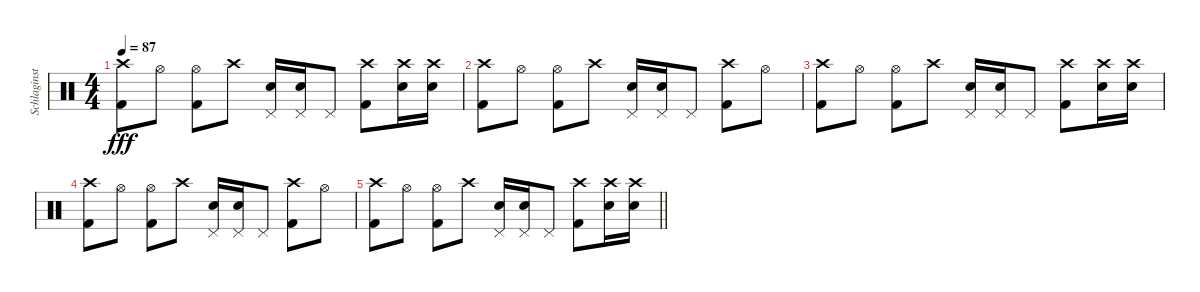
\track ("Schlaginstrumente -  Auswahl" "Schlaginst") {instrument percussion}
\staff {score}
\articulation defaults
\ts (4 4)
\tempo 87
\clef neutral
\ks c
("Crash high (hit)" "Kick (hit) 2").8{dy fff} "Hi-Hat (open)".8 ("Hi-Hat (open)" "Kick (hit) 2").8 "Crash high (hit)".8 ("Pedal Hi-Hat (hit)" "Snare (hit) 2").16 ("Pedal Hi-Hat (hit)" "Snare (hit) 2").16 "Pedal Hi-Hat (hit)".8 ("Crash high (hit)" "Kick (hit) 2").8 ("Crash high (hit)" "Snare (hit) 2").16 ("Crash high (hit)" "Snare (hit) 2").16 |
("Crash high (hit)" "Kick (hit) 2").8 "Hi-Hat (open)".8 ("Hi-Hat (open)" "Kick (hit) 2").8 "Crash high (hit)".8 ("Pedal Hi-Hat (hit)" "Snare (hit) 2").16 ("Pedal Hi-Hat (hit)" "Snare (hit) 2").16 "Pedal Hi-Hat (hit)".8 ("Crash high (hit)" "Kick (hit) 2").8 "Hi-Hat (open)".8 |
("Crash high (hit)" "Kick (hit) 2").8 "Hi-Hat (open)".8 ("Hi-Hat (open)" "Kick (hit) 2").8 "Crash high (hit)".8 ("Pedal Hi-Hat (hit)" "Snare (hit) 2").16 ("Pedal Hi-Hat (hit)" "Snare (hit) 2").16 "Pedal Hi-Hat (hit)".8 ("Crash high (hit)" "Kick (hit) 2").8 ("Crash high (hit)" "Snare (hit) 2").16 ("Crash high (hit)" "Snare (hit) 2").16 |
("Crash high (hit)" "Kick (hit) 2").8 "Hi-Hat (open)".8 ("Hi-Hat (open)" "Kick (hit) 2").8 "Crash high (hit)".8 ("Pedal Hi-Hat (hit)" "Snare (hit) 2").16 ("Pedal Hi-Hat (hit)" "Snare (hit) 2").16 "Pedal Hi-Hat (hit)".8 ("Crash high (hit)" "Kick (hit) 2").8 "Hi-Hat (open)".8 |
\barLineRight lightlight
("Crash high (hit)" "Kick (hit) 2").8 "Hi-Hat (open)".8 ("Hi-Hat (open)" "Kick (hit) 2").8 "Crash high (hit)".8 ("Pedal Hi-Hat (hit)" "Snare (hit) 2").16 ("Pedal Hi-Hat (hit)" "Snare (hit) 2").16 "Pedal Hi-Hat (hit)".8 ("Crash high (hit)" "Kick (hit) 2").8 ("Crash high (hit)" "Snare (hit) 2").16 ("Crash high (hit)" "Snare (hit) 2").16
